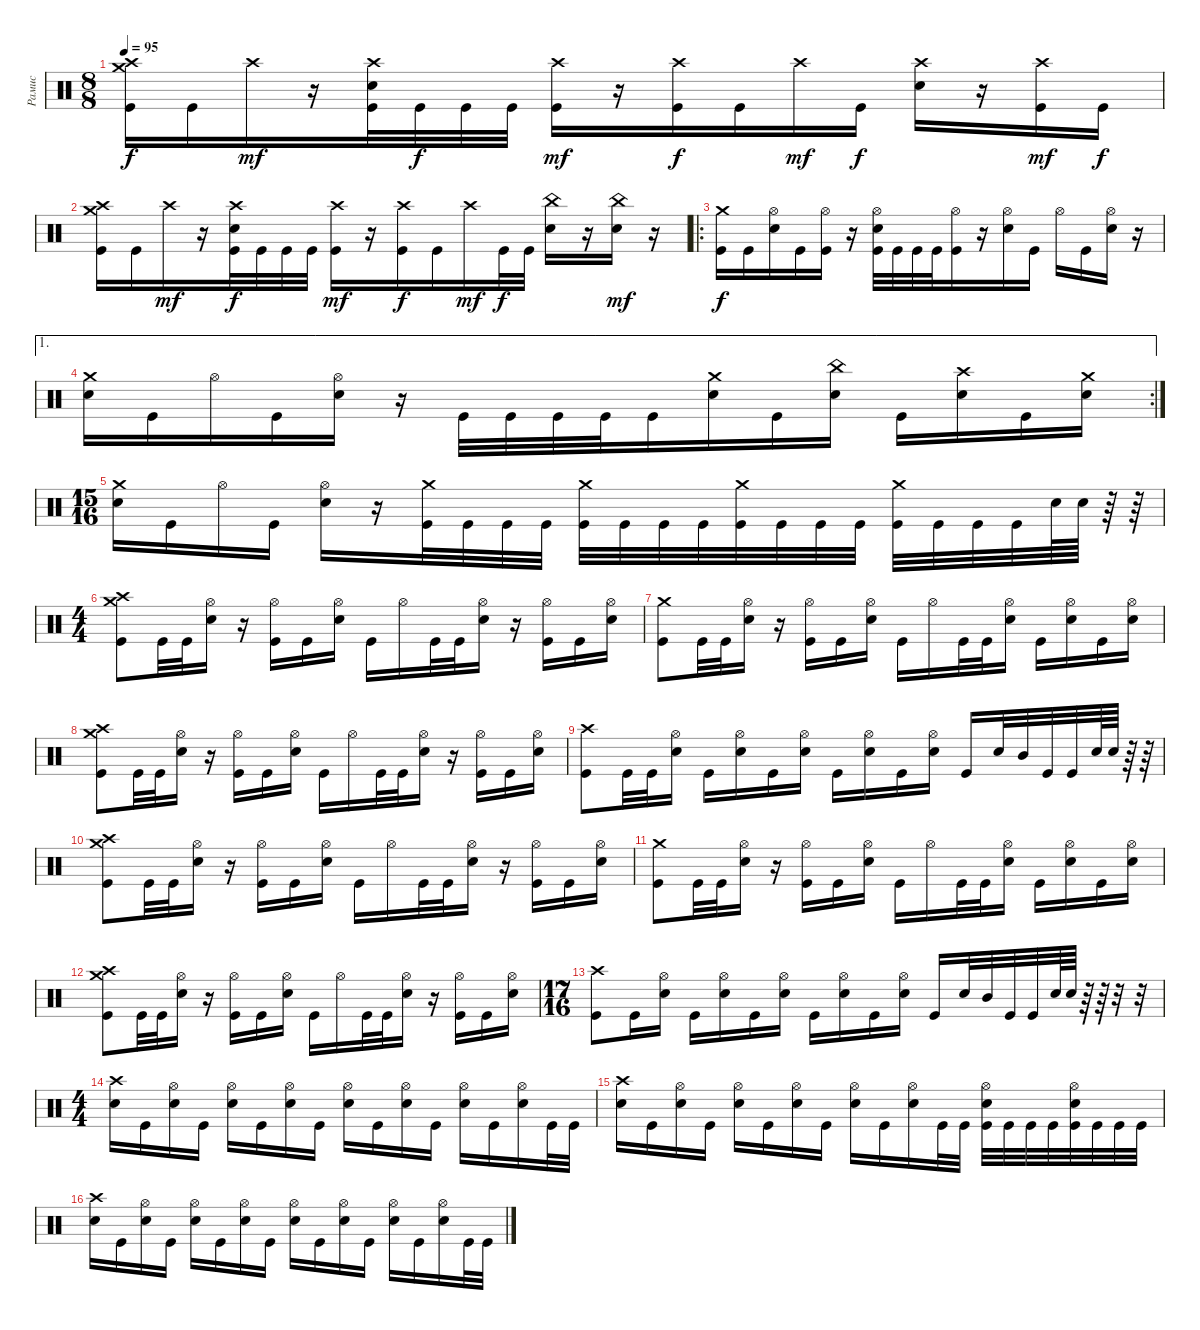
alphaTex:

\track ("Рамис" "Рамис") {instrument percussion}
\staff {score}
\articulation defaults
\ts (8 8)
\tempo 95
\clef neutral
\ks c
("Crash high (hit)" "Crash medium (hit)" "Kick (hit)").16{dy f} "Kick (hit)".16 "Crash high (hit)".16{dy mf} r.16 ("Crash high (hit)" "Electric Snare (hit)" "Kick (hit)").32 "Kick (hit)".32{dy f} "Kick (hit)".32 "Kick (hit)".32 ("Crash high (hit)" "Kick (hit)").16{dy mf} r.16 ("Crash high (hit)" "Kick (hit)").16{dy f} "Kick (hit)".16 "Crash high (hit)".16{dy mf} "Kick (hit)".16{dy f} ("Crash high (hit)" "Electric Snare (hit)").16 r.16 ("Crash high (hit)" "Kick (hit)").16{dy mf} "Kick (hit)".16{dy f} |
("Crash medium (hit)" "Crash high (hit)" "Kick (hit)").16 "Kick (hit)".16 "Crash high (hit)".16{dy mf} r.16 ("Crash high (hit)" "Electric Snare (hit)" "Kick (hit)").32{dy f} "Kick (hit)".32 "Kick (hit)".32 "Kick (hit)".32 ("Crash high (hit)" "Kick (hit)").16{dy mf} r.16 ("Crash high (hit)" "Kick (hit)").16{dy f} "Kick (hit)".16 "Crash high (hit)".16{dy mf} "Kick (hit)".32{dy f} "Kick (hit)".32 ("China (hit)" "Electric Snare (hit)").16 r.16 ("China (hit)" "Electric Snare (hit)").16{dy mf} r.16 |
\ro
("Crash medium (hit)" "Kick (hit)").16{dy f} "Kick (hit)".16 ("Hi-Hat (open)" "Electric Snare (hit)").16 "Kick (hit)".16 ("Hi-Hat (open)" "Kick (hit)").16 r.16 ("Hi-Hat (open)" "Electric Snare (hit)" "Kick (hit)").32 "Kick (hit)".32 "Kick (hit)".32 "Kick (hit)".32 ("Hi-Hat (open)" "Kick (hit)").16 r.16 ("Hi-Hat (open)" "Electric Snare (hit)").16 "Kick (hit)".16 "Hi-Hat (open)".16 "Kick (hit)".16 ("Hi-Hat (open)" "Electric Snare (hit)").16 r.16 |
\ae 1
\rc 2
("Crash medium (hit)" "Electric Snare (hit)").16 "Kick (hit)".16 "Hi-Hat (open)".16 "Kick (hit)".16 ("Hi-Hat (open)" "Electric Snare (hit)").16 r.16 "Kick (hit)".32 "Kick (hit)".32 "Kick (hit)".32 "Kick (hit)".32 "Kick (hit)".16 ("Crash medium (hit)" "Electric Snare (hit)").16 "Kick (hit)".16 ("China (hit)" "Electric Snare (hit)").16 "Kick (hit)".16 ("Crash high (hit)" "Electric Snare (hit)").16 "Kick (hit)".16 ("Crash medium (hit)" "Electric Snare (hit)").16 |
\ts (15 16)
("Crash medium (hit)" "Electric Snare (hit)").16 "Kick (hit)".16 "Hi-Hat (open)".16 "Kick (hit)".16 ("Hi-Hat (open)" "Electric Snare (hit)").16 r.16 ("Crash medium (hit)" "Kick (hit)").32 "Kick (hit)".32 "Kick (hit)".32 "Kick (hit)".32 ("Crash medium (hit)" "Kick (hit)").32 "Kick (hit)".32 "Kick (hit)".32 "Kick (hit)".32 ("Crash medium (hit)" "Kick (hit)").32 "Kick (hit)".32 "Kick (hit)".32 "Kick (hit)".32 ("Crash medium (hit)" "Kick (hit)").32 "Kick (hit)".32 "Kick (hit)".32 "Kick (hit)".32 "Electric Snare (hit)".64 "Electric Snare (hit)".64 r.64 r.64 |
\ts (4 4)
("Crash medium (hit)" "Crash high (hit)" "Kick (hit)").8 "Kick (hit)".32 "Kick (hit)".32 ("Hi-Hat (open)" "Electric Snare (hit)").16 r.16 ("Hi-Hat (open)" "Kick (hit)").16 "Kick (hit)".16 ("Hi-Hat (open)" "Electric Snare (hit)").16 "Kick (hit)".16 "Hi-Hat (open)".16 "Kick (hit)".32 "Kick (hit)".32 ("Hi-Hat (open)" "Electric Snare (hit)").16 r.16 ("Hi-Hat (open)" "Kick (hit)").16 "Kick (hit)".16 ("Hi-Hat (open)" "Electric Snare (hit)").16 |
("Crash medium (hit)" "Kick (hit)").8 "Kick (hit)".32 "Kick (hit)".32 ("Hi-Hat (open)" "Electric Snare (hit)").16 r.16 ("Hi-Hat (open)" "Kick (hit)").16 "Kick (hit)".16 ("Hi-Hat (open)" "Electric Snare (hit)").16 "Kick (hit)".16 "Hi-Hat (open)".16 "Kick (hit)".32 "Kick (hit)".32 ("Hi-Hat (open)" "Electric Snare (hit)").16 "Kick (hit)".16 ("Hi-Hat (open)" "Electric Snare (hit)").16 "Kick (hit)".16 ("Hi-Hat (open)" "Electric Snare (hit)").16 |
("Crash medium (hit)" "Crash high (hit)" "Kick (hit)").8 "Kick (hit)".32 "Kick (hit)".32 ("Hi-Hat (open)" "Electric Snare (hit)").16 r.16 ("Hi-Hat (open)" "Kick (hit)").16 "Kick (hit)".16 ("Hi-Hat (open)" "Electric Snare (hit)").16 "Kick (hit)".16 "Hi-Hat (open)".16 "Kick (hit)".32 "Kick (hit)".32 ("Hi-Hat (open)" "Electric Snare (hit)").16 r.16 ("Hi-Hat (open)" "Kick (hit)").16 "Kick (hit)".16 ("Hi-Hat (open)" "Electric Snare (hit)").16 |
("Crash high (hit)" "Kick (hit)").8 "Kick (hit)".32 "Kick (hit)".32 ("Hi-Hat (open)" "Electric Snare (hit)").16 "Kick (hit)".16 ("Hi-Hat (open)" "Electric Snare (hit)").16 "Kick (hit)".16 ("Hi-Hat (open)" "Electric Snare (hit)").16 "Kick (hit)".16 ("Hi-Hat (open)" "Electric Snare (hit)").16 "Kick (hit)".16 ("Hi-Hat (open)" "Electric Snare (hit)").16 "Kick (hit)".16 "Electric Snare (hit)".32 "Mid Tom (hit)".32 "Kick (hit)".32 "Kick (hit)".32 "Electric Snare (hit)".64 "Electric Snare (hit)".64 r.64 r.64 |
("Crash medium (hit)" "Crash high (hit)" "Kick (hit)").8 "Kick (hit)".32 "Kick (hit)".32 ("Hi-Hat (open)" "Electric Snare (hit)").16 r.16 ("Hi-Hat (open)" "Kick (hit)").16 "Kick (hit)".16 ("Hi-Hat (open)" "Electric Snare (hit)").16 "Kick (hit)".16 "Hi-Hat (open)".16 "Kick (hit)".32 "Kick (hit)".32 ("Hi-Hat (open)" "Electric Snare (hit)").16 r.16 ("Hi-Hat (open)" "Kick (hit)").16 "Kick (hit)".16 ("Hi-Hat (open)" "Electric Snare (hit)").16 |
("Crash medium (hit)" "Kick (hit)").8 "Kick (hit)".32 "Kick (hit)".32 ("Hi-Hat (open)" "Electric Snare (hit)").16 r.16 ("Hi-Hat (open)" "Kick (hit)").16 "Kick (hit)".16 ("Hi-Hat (open)" "Electric Snare (hit)").16 "Kick (hit)".16 "Hi-Hat (open)".16 "Kick (hit)".32 "Kick (hit)".32 ("Hi-Hat (open)" "Electric Snare (hit)").16 "Kick (hit)".16 ("Hi-Hat (open)" "Electric Snare (hit)").16 "Kick (hit)".16 ("Hi-Hat (open)" "Electric Snare (hit)").16 |
("Crash medium (hit)" "Crash high (hit)" "Kick (hit)").8 "Kick (hit)".32 "Kick (hit)".32 ("Hi-Hat (open)" "Electric Snare (hit)").16 r.16 ("Hi-Hat (open)" "Kick (hit)").16 "Kick (hit)".16 ("Hi-Hat (open)" "Electric Snare (hit)").16 "Kick (hit)".16 "Hi-Hat (open)".16 "Kick (hit)".32 "Kick (hit)".32 ("Hi-Hat (open)" "Electric Snare (hit)").16 r.16 ("Hi-Hat (open)" "Kick (hit)").16 "Kick (hit)".16 ("Hi-Hat (open)" "Electric Snare (hit)").16 |
\ts (17 16)
("Crash high (hit)" "Kick (hit)").8 "Kick (hit)".16 ("Hi-Hat (open)" "Electric Snare (hit)").16 "Kick (hit)".16 ("Hi-Hat (open)" "Electric Snare (hit)").16 "Kick (hit)".16 ("Hi-Hat (open)" "Electric Snare (hit)").16 "Kick (hit)".16 ("Hi-Hat (open)" "Electric Snare (hit)").16 "Kick (hit)".16 ("Hi-Hat (open)" "Electric Snare (hit)").16 "Kick (hit)".16 "Electric Snare (hit)".32 "Mid Tom (hit)".32 "Kick (hit)".32 "Kick (hit)".32 "Electric Snare (hit)".64 "Electric Snare (hit)".64 r.64 r.64 r.32 r.32 |
\ts (4 4)
("Electric Snare (hit)" "Crash high (hit)").16 "Kick (hit)".16 ("Electric Snare (hit)" "Hi-Hat (open)").16 "Kick (hit)".16 ("Electric Snare (hit)" "Hi-Hat (open)").16 "Kick (hit)".16 ("Electric Snare (hit)" "Hi-Hat (open)").16 "Kick (hit)".16 ("Electric Snare (hit)" "Hi-Hat (open)").16 "Kick (hit)".16 ("Electric Snare (hit)" "Hi-Hat (open)").16 "Kick (hit)".16 ("Electric Snare (hit)" "Hi-Hat (open)").16 "Kick (hit)".16 ("Electric Snare (hit)" "Hi-Hat (open)").16 "Kick (hit)".32 "Kick (hit)".32 |
("Electric Snare (hit)" "Crash high (hit)").16 "Kick (hit)".16 ("Electric Snare (hit)" "Hi-Hat (open)").16 "Kick (hit)".16 ("Electric Snare (hit)" "Hi-Hat (open)").16 "Kick (hit)".16 ("Electric Snare (hit)" "Hi-Hat (open)").16 "Kick (hit)".16 ("Electric Snare (hit)" "Hi-Hat (open)").16 "Kick (hit)".16 ("Electric Snare (hit)" "Hi-Hat (open)").16 "Kick (hit)".32 "Kick (hit)".32 ("Kick (hit)" "Electric Snare (hit)" "Hi-Hat (open)").32 "Kick (hit)".32 "Kick (hit)".32 "Kick (hit)".32 ("Kick (hit)" "Electric Snare (hit)" "Hi-Hat (open)").32 "Kick (hit)".32 "Kick (hit)".32 "Kick (hit)".32 |
("Electric Snare (hit)" "Crash high (hit)").16 "Kick (hit)".16 ("Electric Snare (hit)" "Hi-Hat (open)").16 "Kick (hit)".16 ("Electric Snare (hit)" "Hi-Hat (open)").16 "Kick (hit)".16 ("Electric Snare (hit)" "Hi-Hat (open)").16 "Kick (hit)".16 ("Electric Snare (hit)" "Hi-Hat (open)").16 "Kick (hit)".16 ("Electric Snare (hit)" "Hi-Hat (open)").16 "Kick (hit)".16 ("Electric Snare (hit)" "Hi-Hat (open)").16 "Kick (hit)".16 ("Electric Snare (hit)" "Hi-Hat (open)").16 "Kick (hit)".32 "Kick (hit)".32
